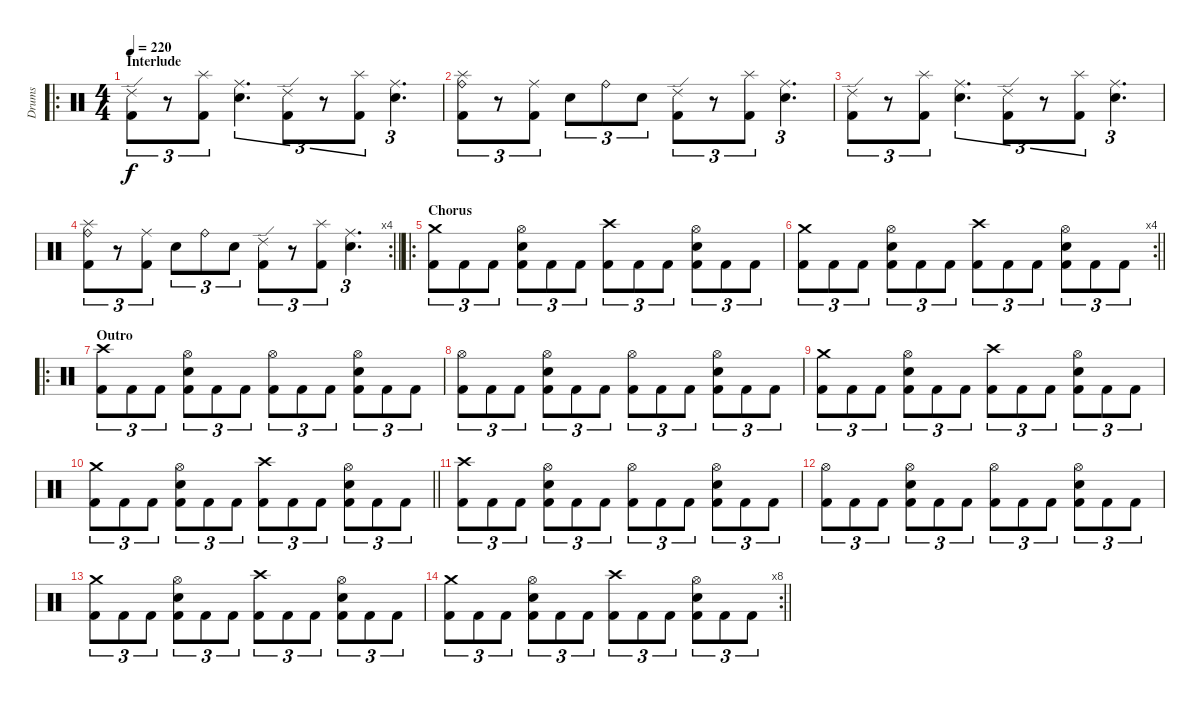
\track ("Drums" "Drums") {instrument percussion}
\staff {score}
\articulation defaults
\ro
\ts (4 4)
\section ("" "Interlude")
\tempo 220
\clef neutral
\ks c
("Ride (edge) 2" "Kick (hit) 2").8{tu (3 2) dy f} r.8{tu (3 2)} ("Splash (hit)" "Kick (hit) 2").8{tu (3 2)} ("Ride (middle)" "Snare (hit) 2").4{d tu (3 2)} ("Ride (edge) 2" "Kick (hit) 2").8{tu (3 2)} r.8{tu (3 2)} ("Splash (hit)" "Kick (hit) 2").8{tu (3 2)} ("Ride (middle)" "Snare (hit) 2").4{d tu (3 2)} |
("Splash (hit)" "Ride (bell)" "Kick (hit) 2").8{tu (3 2)} r.8{tu (3 2)} ("Ride (middle)" "Kick (hit) 2").8{tu (3 2)} "Snare (hit) 2".8{tu (3 2)} "Ride (bell)".8{tu (3 2)} "Snare (hit) 2".8{tu (3 2)} ("Ride (edge) 2" "Kick (hit) 2").8{tu (3 2)} r.8{tu (3 2)} ("Splash (hit)" "Kick (hit) 2").8{tu (3 2)} ("Ride (middle)" "Snare (hit) 2").4{d tu (3 2)} |
("Ride (edge) 2" "Kick (hit) 2").8{tu (3 2)} r.8{tu (3 2)} ("Splash (hit)" "Kick (hit) 2").8{tu (3 2)} ("Ride (middle)" "Snare (hit) 2").4{d tu (3 2)} ("Ride (edge) 2" "Kick (hit) 2").8{tu (3 2)} r.8{tu (3 2)} ("Splash (hit)" "Kick (hit) 2").8{tu (3 2)} ("Ride (middle)" "Snare (hit) 2").4{d tu (3 2)} |
\rc 4
\barLineRight lightlight
("Splash (hit)" "Ride (bell)" "Kick (hit) 2").8{tu (3 2)} r.8{tu (3 2)} ("Ride (middle)" "Kick (hit) 2").8{tu (3 2)} "Snare (hit) 2".8{tu (3 2)} "Ride (bell)".8{tu (3 2)} "Snare (hit) 2".8{tu (3 2)} ("Ride (edge) 2" "Kick (hit) 2").8{tu (3 2)} r.8{tu (3 2)} ("Splash (hit)" "Kick (hit) 2").8{tu (3 2)} ("Ride (middle)" "Snare (hit) 2").4{d tu (3 2)} |
\ro
\section ("" "Chorus")
("Crash medium (hit)" "Kick (hit) 2").8{tu (3 2)} "Kick (hit) 2".8{tu (3 2)} "Kick (hit) 2".8{tu (3 2)} ("Hi-Hat (open)" "Snare (hit) 2" "Kick (hit) 2").8{tu (3 2)} "Kick (hit) 2".8{tu (3 2)} "Kick (hit) 2".8{tu (3 2)} ("Crash high (hit)" "Kick (hit) 2").8{tu (3 2)} "Kick (hit) 2".8{tu (3 2)} "Kick (hit) 2".8{tu (3 2)} ("Hi-Hat (open)" "Snare (hit) 2" "Kick (hit) 2").8{tu (3 2)} "Kick (hit) 2".8{tu (3 2)} "Kick (hit) 2".8{tu (3 2)} |
\rc 4
\barLineRight lightlight
("Crash medium (hit)" "Kick (hit) 2").8{tu (3 2)} "Kick (hit) 2".8{tu (3 2)} "Kick (hit) 2".8{tu (3 2)} ("Hi-Hat (open)" "Snare (hit) 2" "Kick (hit) 2").8{tu (3 2)} "Kick (hit) 2".8{tu (3 2)} "Kick (hit) 2".8{tu (3 2)} ("Crash high (hit)" "Kick (hit) 2").8{tu (3 2)} "Kick (hit) 2".8{tu (3 2)} "Kick (hit) 2".8{tu (3 2)} ("Hi-Hat (open)" "Snare (hit) 2" "Kick (hit) 2").8{tu (3 2)} "Kick (hit) 2".8{tu (3 2)} "Kick (hit) 2".8{tu (3 2)} |
\ro
\section ("" "Outro")
("Crash high (hit)" "Kick (hit) 2").8{tu (3 2)} "Kick (hit) 2".8{tu (3 2)} "Kick (hit) 2".8{tu (3 2)} ("Hi-Hat (open)" "Snare (hit) 2" "Kick (hit) 2").8{tu (3 2)} "Kick (hit) 2".8{tu (3 2)} "Kick (hit) 2".8{tu (3 2)} ("Hi-Hat (open)" "Kick (hit) 2").8{tu (3 2)} "Kick (hit) 2".8{tu (3 2)} "Kick (hit) 2".8{tu (3 2)} ("Hi-Hat (open)" "Snare (hit) 2" "Kick (hit) 2").8{tu (3 2)} "Kick (hit) 2".8{tu (3 2)} "Kick (hit) 2".8{tu (3 2)} |
("Hi-Hat (open)" "Kick (hit) 2").8{tu (3 2)} "Kick (hit) 2".8{tu (3 2)} "Kick (hit) 2".8{tu (3 2)} ("Hi-Hat (open)" "Snare (hit) 2" "Kick (hit) 2").8{tu (3 2)} "Kick (hit) 2".8{tu (3 2)} "Kick (hit) 2".8{tu (3 2)} ("Hi-Hat (open)" "Kick (hit) 2").8{tu (3 2)} "Kick (hit) 2".8{tu (3 2)} "Kick (hit) 2".8{tu (3 2)} ("Hi-Hat (open)" "Snare (hit) 2" "Kick (hit) 2").8{tu (3 2)} "Kick (hit) 2".8{tu (3 2)} "Kick (hit) 2".8{tu (3 2)} |
("Crash medium (hit)" "Kick (hit) 2").8{tu (3 2)} "Kick (hit) 2".8{tu (3 2)} "Kick (hit) 2".8{tu (3 2)} ("Hi-Hat (open)" "Snare (hit) 2" "Kick (hit) 2").8{tu (3 2)} "Kick (hit) 2".8{tu (3 2)} "Kick (hit) 2".8{tu (3 2)} ("Crash high (hit)" "Kick (hit) 2").8{tu (3 2)} "Kick (hit) 2".8{tu (3 2)} "Kick (hit) 2".8{tu (3 2)} ("Hi-Hat (open)" "Snare (hit) 2" "Kick (hit) 2").8{tu (3 2)} "Kick (hit) 2".8{tu (3 2)} "Kick (hit) 2".8{tu (3 2)} |
\barLineRight lightlight
("Crash medium (hit)" "Kick (hit) 2").8{tu (3 2)} "Kick (hit) 2".8{tu (3 2)} "Kick (hit) 2".8{tu (3 2)} ("Hi-Hat (open)" "Snare (hit) 2" "Kick (hit) 2").8{tu (3 2)} "Kick (hit) 2".8{tu (3 2)} "Kick (hit) 2".8{tu (3 2)} ("Crash high (hit)" "Kick (hit) 2").8{tu (3 2)} "Kick (hit) 2".8{tu (3 2)} "Kick (hit) 2".8{tu (3 2)} ("Hi-Hat (open)" "Snare (hit) 2" "Kick (hit) 2").8{tu (3 2)} "Kick (hit) 2".8{tu (3 2)} "Kick (hit) 2".8{tu (3 2)} |
("Crash high (hit)" "Kick (hit) 2").8{tu (3 2)} "Kick (hit) 2".8{tu (3 2)} "Kick (hit) 2".8{tu (3 2)} ("Hi-Hat (open)" "Snare (hit) 2" "Kick (hit) 2").8{tu (3 2)} "Kick (hit) 2".8{tu (3 2)} "Kick (hit) 2".8{tu (3 2)} ("Hi-Hat (open)" "Kick (hit) 2").8{tu (3 2)} "Kick (hit) 2".8{tu (3 2)} "Kick (hit) 2".8{tu (3 2)} ("Hi-Hat (open)" "Snare (hit) 2" "Kick (hit) 2").8{tu (3 2)} "Kick (hit) 2".8{tu (3 2)} "Kick (hit) 2".8{tu (3 2)} |
("Hi-Hat (open)" "Kick (hit) 2").8{tu (3 2)} "Kick (hit) 2".8{tu (3 2)} "Kick (hit) 2".8{tu (3 2)} ("Hi-Hat (open)" "Snare (hit) 2" "Kick (hit) 2").8{tu (3 2)} "Kick (hit) 2".8{tu (3 2)} "Kick (hit) 2".8{tu (3 2)} ("Hi-Hat (open)" "Kick (hit) 2").8{tu (3 2)} "Kick (hit) 2".8{tu (3 2)} "Kick (hit) 2".8{tu (3 2)} ("Hi-Hat (open)" "Snare (hit) 2" "Kick (hit) 2").8{tu (3 2)} "Kick (hit) 2".8{tu (3 2)} "Kick (hit) 2".8{tu (3 2)} |
("Crash medium (hit)" "Kick (hit) 2").8{tu (3 2)} "Kick (hit) 2".8{tu (3 2)} "Kick (hit) 2".8{tu (3 2)} ("Hi-Hat (open)" "Snare (hit) 2" "Kick (hit) 2").8{tu (3 2)} "Kick (hit) 2".8{tu (3 2)} "Kick (hit) 2".8{tu (3 2)} ("Crash high (hit)" "Kick (hit) 2").8{tu (3 2)} "Kick (hit) 2".8{tu (3 2)} "Kick (hit) 2".8{tu (3 2)} ("Hi-Hat (open)" "Snare (hit) 2" "Kick (hit) 2").8{tu (3 2)} "Kick (hit) 2".8{tu (3 2)} "Kick (hit) 2".8{tu (3 2)} |
\rc 8
\barLineRight lightlight
("Crash medium (hit)" "Kick (hit) 2").8{tu (3 2)} "Kick (hit) 2".8{tu (3 2)} "Kick (hit) 2".8{tu (3 2)} ("Hi-Hat (open)" "Snare (hit) 2" "Kick (hit) 2").8{tu (3 2)} "Kick (hit) 2".8{tu (3 2)} "Kick (hit) 2".8{tu (3 2)} ("Crash high (hit)" "Kick (hit) 2").8{tu (3 2)} "Kick (hit) 2".8{tu (3 2)} "Kick (hit) 2".8{tu (3 2)} ("Hi-Hat (open)" "Snare (hit) 2" "Kick (hit) 2").8{tu (3 2)} "Kick (hit) 2".8{tu (3 2)} "Kick (hit) 2".8{tu (3 2)}
